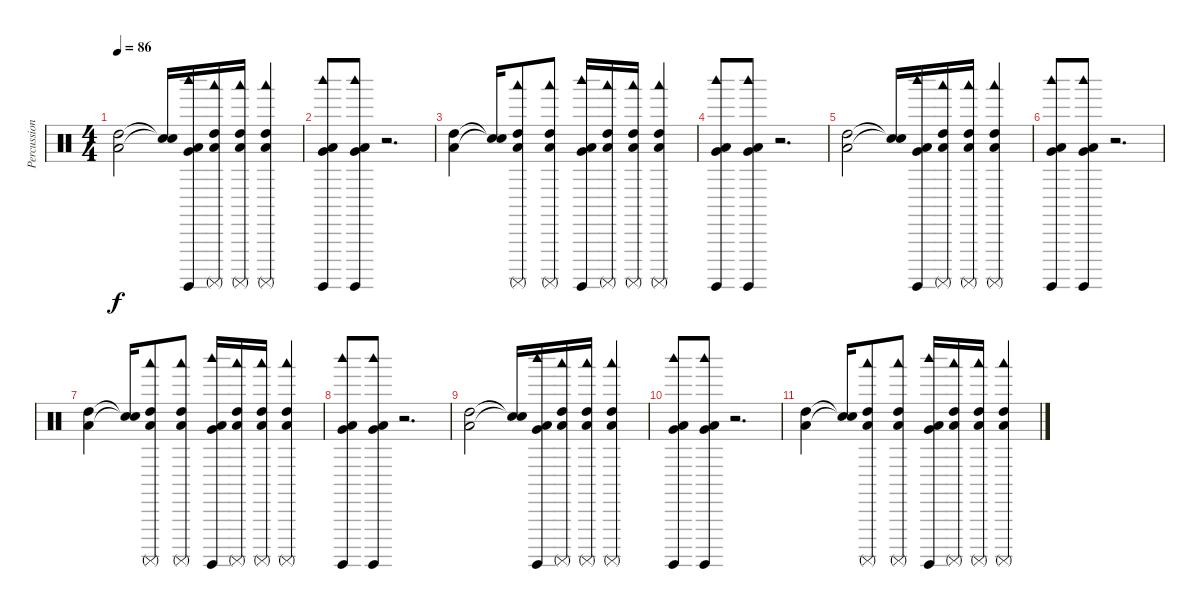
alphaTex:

\track ("Percussion 2" "Percussion") {instrument percussion}
\staff {score}
\articulation defaults
\ts (4 4)
\tempo 86
\clef neutral
\ks c
("High Tom (hit)" "Low Tom (hit)").2{dy f} ("Snare (hit)"{t} "Snare (hit)"{t}).16 ("Low Tom (hit)" "Woodblock high (hit)" "Surdo (hit)" "Very Low Tom (hit)").16 ("High Tom (hit)" "Woodblock low (hit)" "Surdo (mute)" "Low Tom (hit)").16 ("High Tom (hit)" "Woodblock low (hit)" "Surdo (mute)" "Low Tom (hit)").16 ("High Tom (hit)" "Woodblock low (hit)" "Surdo (mute)" "Low Tom (hit)").4 |
("Low Tom (hit)" "Woodblock high (hit)" "Surdo (hit)" "Very Low Tom (hit)").8 ("Low Tom (hit)" "Woodblock high (hit)" "Surdo (hit)" "Very Low Tom (hit)").8 r.2{d} |
("High Tom (hit)" "Low Tom (hit)").4 ("Snare (hit)"{t} "Snare (hit)"{t}).16 ("High Tom (hit)" "Woodblock low (hit)" "Surdo (mute)" "Low Tom (hit)").8 ("High Tom (hit)" "Woodblock low (hit)" "Surdo (mute)" "Low Tom (hit)").8 ("Low Tom (hit)" "Woodblock high (hit)" "Surdo (hit)" "Very Low Tom (hit)").16 ("High Tom (hit)" "Woodblock low (hit)" "Surdo (mute)" "Low Tom (hit)").16 ("High Tom (hit)" "Woodblock low (hit)" "Surdo (mute)" "Low Tom (hit)").16 ("High Tom (hit)" "Woodblock low (hit)" "Surdo (mute)" "Low Tom (hit)").4 |
("Low Tom (hit)" "Woodblock high (hit)" "Surdo (hit)" "Very Low Tom (hit)").8 ("Low Tom (hit)" "Woodblock high (hit)" "Surdo (hit)" "Very Low Tom (hit)").8 r.2{d} |
("High Tom (hit)" "Low Tom (hit)").2 ("Snare (hit)"{t} "Snare (hit)"{t}).16 ("Low Tom (hit)" "Woodblock high (hit)" "Surdo (hit)" "Very Low Tom (hit)").16 ("High Tom (hit)" "Woodblock low (hit)" "Surdo (mute)" "Low Tom (hit)").16 ("High Tom (hit)" "Woodblock low (hit)" "Surdo (mute)" "Low Tom (hit)").16 ("High Tom (hit)" "Woodblock low (hit)" "Surdo (mute)" "Low Tom (hit)").4 |
("Low Tom (hit)" "Woodblock high (hit)" "Surdo (hit)" "Very Low Tom (hit)").8 ("Low Tom (hit)" "Woodblock high (hit)" "Surdo (hit)" "Very Low Tom (hit)").8 r.2{d} |
("High Tom (hit)" "Low Tom (hit)").4 ("Snare (hit)"{t} "Snare (hit)"{t}).16 ("High Tom (hit)" "Woodblock low (hit)" "Surdo (mute)" "Low Tom (hit)").8 ("High Tom (hit)" "Woodblock low (hit)" "Surdo (mute)" "Low Tom (hit)").8 ("Low Tom (hit)" "Woodblock high (hit)" "Surdo (hit)" "Very Low Tom (hit)").16 ("High Tom (hit)" "Woodblock low (hit)" "Surdo (mute)" "Low Tom (hit)").16 ("High Tom (hit)" "Woodblock low (hit)" "Surdo (mute)" "Low Tom (hit)").16 ("High Tom (hit)" "Woodblock low (hit)" "Surdo (mute)" "Low Tom (hit)").4 |
("Low Tom (hit)" "Woodblock high (hit)" "Surdo (hit)" "Very Low Tom (hit)").8{volume 0} ("Low Tom (hit)" "Woodblock high (hit)" "Surdo (hit)" "Very Low Tom (hit)").8 r.2{d} |
("High Tom (hit)" "Low Tom (hit)").2 ("Snare (hit)"{t} "Snare (hit)"{t}).16 ("Low Tom (hit)" "Woodblock high (hit)" "Surdo (hit)" "Very Low Tom (hit)").16 ("High Tom (hit)" "Woodblock low (hit)" "Surdo (mute)" "Low Tom (hit)").16 ("High Tom (hit)" "Woodblock low (hit)" "Surdo (mute)" "Low Tom (hit)").16 ("High Tom (hit)" "Woodblock low (hit)" "Surdo (mute)" "Low Tom (hit)").4 |
("Low Tom (hit)" "Woodblock high (hit)" "Surdo (hit)" "Very Low Tom (hit)").8 ("Low Tom (hit)" "Woodblock high (hit)" "Surdo (hit)" "Very Low Tom (hit)").8 r.2{d} |
("High Tom (hit)" "Low Tom (hit)").4 ("Snare (hit)"{t} "Snare (hit)"{t}).16 ("High Tom (hit)" "Woodblock low (hit)" "Surdo (mute)" "Low Tom (hit)").8 ("High Tom (hit)" "Woodblock low (hit)" "Surdo (mute)" "Low Tom (hit)").8 ("Low Tom (hit)" "Woodblock high (hit)" "Surdo (hit)" "Very Low Tom (hit)").16 ("High Tom (hit)" "Woodblock low (hit)" "Surdo (mute)" "Low Tom (hit)").16 ("High Tom (hit)" "Woodblock low (hit)" "Surdo (mute)" "Low Tom (hit)").16 ("High Tom (hit)" "Woodblock low (hit)" "Surdo (mute)" "Low Tom (hit)").4
